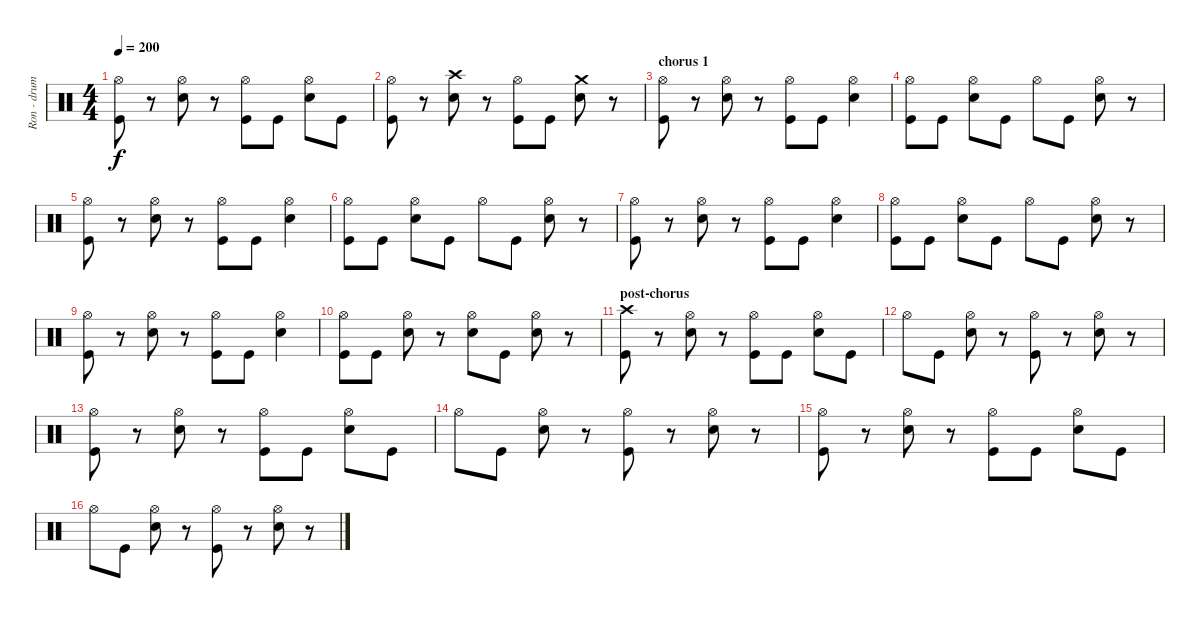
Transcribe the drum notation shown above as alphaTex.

\track ("Ron - drums" "Ron - drum") {instrument percussion}
\staff {score}
\articulation defaults
\ts (4 4)
\tempo 200
\clef neutral
\ks c
("Hi-Hat (open)" "Kick (hit)").8{dy f} r.8 ("Hi-Hat (open)" "Snare (hit) 2").8 r.8 ("Hi-Hat (open)" "Kick (hit)").8 "Kick (hit)".8 ("Hi-Hat (open)" "Snare (hit) 2").8 "Kick (hit)".8 |
("Hi-Hat (open)" "Kick (hit)").8 r.8 ("Crash high (hit)" "Snare (hit) 2").8 r.8 ("Hi-Hat (open)" "Kick (hit)").8 "Kick (hit)".8 ("Crash medium (hit)" "Snare (hit) 2").8 r.8 |
\section ("" "chorus 1")
("Hi-Hat (open)" "Kick (hit)").8 r.8 ("Hi-Hat (open)" "Snare (hit) 2").8 r.8 ("Hi-Hat (open)" "Kick (hit)").8 "Kick (hit)".8 ("Hi-Hat (open)" "Snare (hit) 2").4 |
("Hi-Hat (open)" "Kick (hit)").8 "Kick (hit)".8 ("Hi-Hat (open)" "Snare (hit) 2").8 "Kick (hit)".8 "Hi-Hat (open)".8 "Kick (hit)".8 ("Hi-Hat (open)" "Snare (hit) 2").8 r.8 |
("Hi-Hat (open)" "Kick (hit)").8 r.8 ("Hi-Hat (open)" "Snare (hit) 2").8 r.8 ("Hi-Hat (open)" "Kick (hit)").8 "Kick (hit)".8 ("Hi-Hat (open)" "Snare (hit) 2").4 |
("Hi-Hat (open)" "Kick (hit)").8 "Kick (hit)".8 ("Hi-Hat (open)" "Snare (hit) 2").8 "Kick (hit)".8 "Hi-Hat (open)".8 "Kick (hit)".8 ("Hi-Hat (open)" "Snare (hit) 2").8 r.8 |
("Hi-Hat (open)" "Kick (hit)").8 r.8 ("Hi-Hat (open)" "Snare (hit) 2").8 r.8 ("Hi-Hat (open)" "Kick (hit)").8 "Kick (hit)".8 ("Hi-Hat (open)" "Snare (hit) 2").4 |
("Hi-Hat (open)" "Kick (hit)").8 "Kick (hit)".8 ("Hi-Hat (open)" "Snare (hit) 2").8 "Kick (hit)".8 "Hi-Hat (open)".8 "Kick (hit)".8 ("Hi-Hat (open)" "Snare (hit) 2").8 r.8 |
("Hi-Hat (open)" "Kick (hit)").8 r.8 ("Hi-Hat (open)" "Snare (hit) 2").8 r.8 ("Hi-Hat (open)" "Kick (hit)").8 "Kick (hit)".8 ("Hi-Hat (open)" "Snare (hit) 2").4 |
("Hi-Hat (open)" "Kick (hit)").8 "Kick (hit)".8 ("Hi-Hat (open)" "Snare (hit) 2").8 r.8 ("Hi-Hat (open)" "Snare (hit) 2").8 "Kick (hit)".8 ("Hi-Hat (open)" "Snare (hit) 2").8 r.8 |
\section ("" "post-chorus")
("Crash high (hit)" "Kick (hit)").8 r.8 ("Hi-Hat (open)" "Snare (hit) 2").8 r.8 ("Hi-Hat (open)" "Kick (hit)").8 "Kick (hit)".8 ("Hi-Hat (open)" "Snare (hit) 2").8 "Kick (hit)".8 |
"Hi-Hat (open)".8 "Kick (hit)".8 ("Hi-Hat (open)" "Snare (hit) 2").8 r.8 ("Hi-Hat (open)" "Kick (hit)").8 r.8 ("Hi-Hat (open)" "Snare (hit) 2").8 r.8 |
("Hi-Hat (open)" "Kick (hit)").8 r.8 ("Hi-Hat (open)" "Snare (hit) 2").8 r.8 ("Hi-Hat (open)" "Kick (hit)").8 "Kick (hit)".8 ("Hi-Hat (open)" "Snare (hit) 2").8 "Kick (hit)".8 |
"Hi-Hat (open)".8 "Kick (hit)".8 ("Hi-Hat (open)" "Snare (hit) 2").8 r.8 ("Hi-Hat (open)" "Kick (hit)").8 r.8 ("Hi-Hat (open)" "Snare (hit) 2").8 r.8 |
("Hi-Hat (open)" "Kick (hit)").8 r.8 ("Hi-Hat (open)" "Snare (hit) 2").8 r.8 ("Hi-Hat (open)" "Kick (hit)").8 "Kick (hit)".8 ("Hi-Hat (open)" "Snare (hit) 2").8 "Kick (hit)".8 |
"Hi-Hat (open)".8 "Kick (hit)".8 ("Hi-Hat (open)" "Snare (hit) 2").8 r.8 ("Hi-Hat (open)" "Kick (hit)").8 r.8 ("Hi-Hat (open)" "Snare (hit) 2").8 r.8
